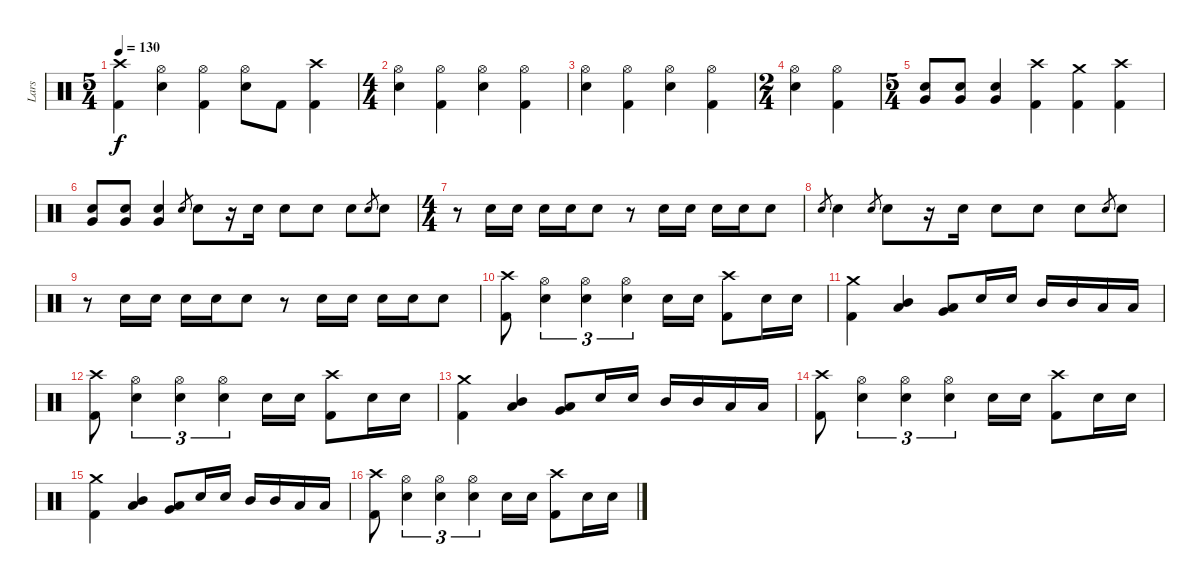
\track ("Lars" "Lars") {instrument percussion}
\staff {score}
\articulation defaults
\ts (5 4)
\tempo 130
\clef neutral
\ks c
("Kick (hit) 2" "Crash high (hit)").4{dy f} ("Electric Snare (hit)" "Hi-Hat (open)").4 ("Kick (hit) 2" "Hi-Hat (open)").4 ("Electric Snare (hit)" "Hi-Hat (open)").8 "Kick (hit) 2".8 ("Kick (hit) 2" "Crash high (hit)").4 |
\ts (4 4)
("Electric Snare (hit)" "Hi-Hat (open)").4 ("Kick (hit) 2" "Hi-Hat (open)").4 ("Electric Snare (hit)" "Hi-Hat (open)").4 ("Kick (hit) 2" "Hi-Hat (open)").4 |
("Electric Snare (hit)" "Hi-Hat (open)").4 ("Kick (hit) 2" "Hi-Hat (open)").4 ("Electric Snare (hit)" "Hi-Hat (open)").4 ("Kick (hit) 2" "Hi-Hat (open)").4 |
\ts (2 4)
("Electric Snare (hit)" "Hi-Hat (open)").4 ("Kick (hit) 2" "Hi-Hat (open)").4 |
\ts (5 4)
("Electric Snare (hit)" "Very Low Tom (hit)").8{bu 120} ("Electric Snare (hit)" "Very Low Tom (hit)").8{bu 120} ("Electric Snare (hit)" "Very Low Tom (hit)").4 ("Kick (hit) 2" "Crash high (hit)").4 ("Kick (hit) 2" "Crash medium (hit)").4 ("Kick (hit) 2" "Crash high (hit)").4 |
\section ("" "")
("Electric Snare (hit)" "Very Low Tom (hit)").8{bu 120} ("Electric Snare (hit)" "Very Low Tom (hit)").8{bu 120} ("Electric Snare (hit)" "Very Low Tom (hit)").4 "Electric Snare (hit)".8{gr} "Electric Snare (hit)".8 r.16 "Electric Snare (hit)".16 "Electric Snare (hit)".8 "Electric Snare (hit)".8 "Electric Snare (hit)".8 "Electric Snare (hit)".8{gr} "Electric Snare (hit)".8 |
\ts (4 4)
r.8 "Electric Snare (hit)".16 "Electric Snare (hit)".16 "Electric Snare (hit)".16 "Electric Snare (hit)".16 "Electric Snare (hit)".8 r.8 "Electric Snare (hit)".16 "Electric Snare (hit)".16 "Electric Snare (hit)".16 "Electric Snare (hit)".16 "Electric Snare (hit)".8 |
"Electric Snare (hit)".8{gr} "Electric Snare (hit)".4 "Electric Snare (hit)".8{gr} "Electric Snare (hit)".8 r.16 "Electric Snare (hit)".16 "Electric Snare (hit)".8 "Electric Snare (hit)".8 "Electric Snare (hit)".8 "Electric Snare (hit)".8{gr} "Electric Snare (hit)".8 |
r.8 "Electric Snare (hit)".16 "Electric Snare (hit)".16 "Electric Snare (hit)".16 "Electric Snare (hit)".16 "Electric Snare (hit)".8 r.8 "Electric Snare (hit)".16 "Electric Snare (hit)".16 "Electric Snare (hit)".16 "Electric Snare (hit)".16 "Electric Snare (hit)".8 |
\section ("" "")
("Kick (hit) 2" "Crash high (hit)").8 ("Electric Snare (hit)" "Hi-Hat (open)").4{tu (3 2)} ("Electric Snare (hit)" "Hi-Hat (open)").4{tu (3 2)} ("Electric Snare (hit)" "Hi-Hat (open)").4{tu (3 2)} "Electric Snare (hit)".16 "Electric Snare (hit)".16 ("Kick (hit) 2" "Crash high (hit)").8 "Electric Snare (hit)".16 "Electric Snare (hit)".16 |
("Kick (hit) 2" "Crash medium (hit)").4 ("Mid Tom (hit)" "Low Tom (hit)").4{bu 120} ("Low Tom (hit)" "Very Low Tom (hit)").8{bu 120} "Electric Snare (hit)".16 "Electric Snare (hit)".16 "Mid Tom (hit)".16 "Mid Tom (hit)".16 "Low Tom (hit)".16 "Low Tom (hit)".16 |
("Kick (hit) 2" "Crash high (hit)").8 ("Electric Snare (hit)" "Hi-Hat (open)").4{tu (3 2)} ("Electric Snare (hit)" "Hi-Hat (open)").4{tu (3 2)} ("Electric Snare (hit)" "Hi-Hat (open)").4{tu (3 2)} "Electric Snare (hit)".16 "Electric Snare (hit)".16 ("Kick (hit) 2" "Crash high (hit)").8 "Electric Snare (hit)".16 "Electric Snare (hit)".16 |
("Kick (hit) 2" "Crash medium (hit)").4 ("Mid Tom (hit)" "Low Tom (hit)").4{bu 120} ("Low Tom (hit)" "Very Low Tom (hit)").8{bu 120} "Electric Snare (hit)".16 "Electric Snare (hit)".16 "Mid Tom (hit)".16 "Mid Tom (hit)".16 "Low Tom (hit)".16 "Low Tom (hit)".16 |
("Kick (hit) 2" "Crash high (hit)").8 ("Electric Snare (hit)" "Hi-Hat (open)").4{tu (3 2)} ("Electric Snare (hit)" "Hi-Hat (open)").4{tu (3 2)} ("Electric Snare (hit)" "Hi-Hat (open)").4{tu (3 2)} "Electric Snare (hit)".16 "Electric Snare (hit)".16 ("Kick (hit) 2" "Crash high (hit)").8 "Electric Snare (hit)".16 "Electric Snare (hit)".16 |
("Kick (hit) 2" "Crash medium (hit)").4 ("Mid Tom (hit)" "Low Tom (hit)").4{bu 120} ("Low Tom (hit)" "Very Low Tom (hit)").8{bu 120} "Electric Snare (hit)".16 "Electric Snare (hit)".16 "Mid Tom (hit)".16 "Mid Tom (hit)".16 "Low Tom (hit)".16 "Low Tom (hit)".16 |
("Kick (hit) 2" "Crash high (hit)").8 ("Electric Snare (hit)" "Hi-Hat (open)").4{tu (3 2)} ("Electric Snare (hit)" "Hi-Hat (open)").4{tu (3 2)} ("Electric Snare (hit)" "Hi-Hat (open)").4{tu (3 2)} "Electric Snare (hit)".16 "Electric Snare (hit)".16 ("Kick (hit) 2" "Crash high (hit)").8 "Electric Snare (hit)".16 "Electric Snare (hit)".16
